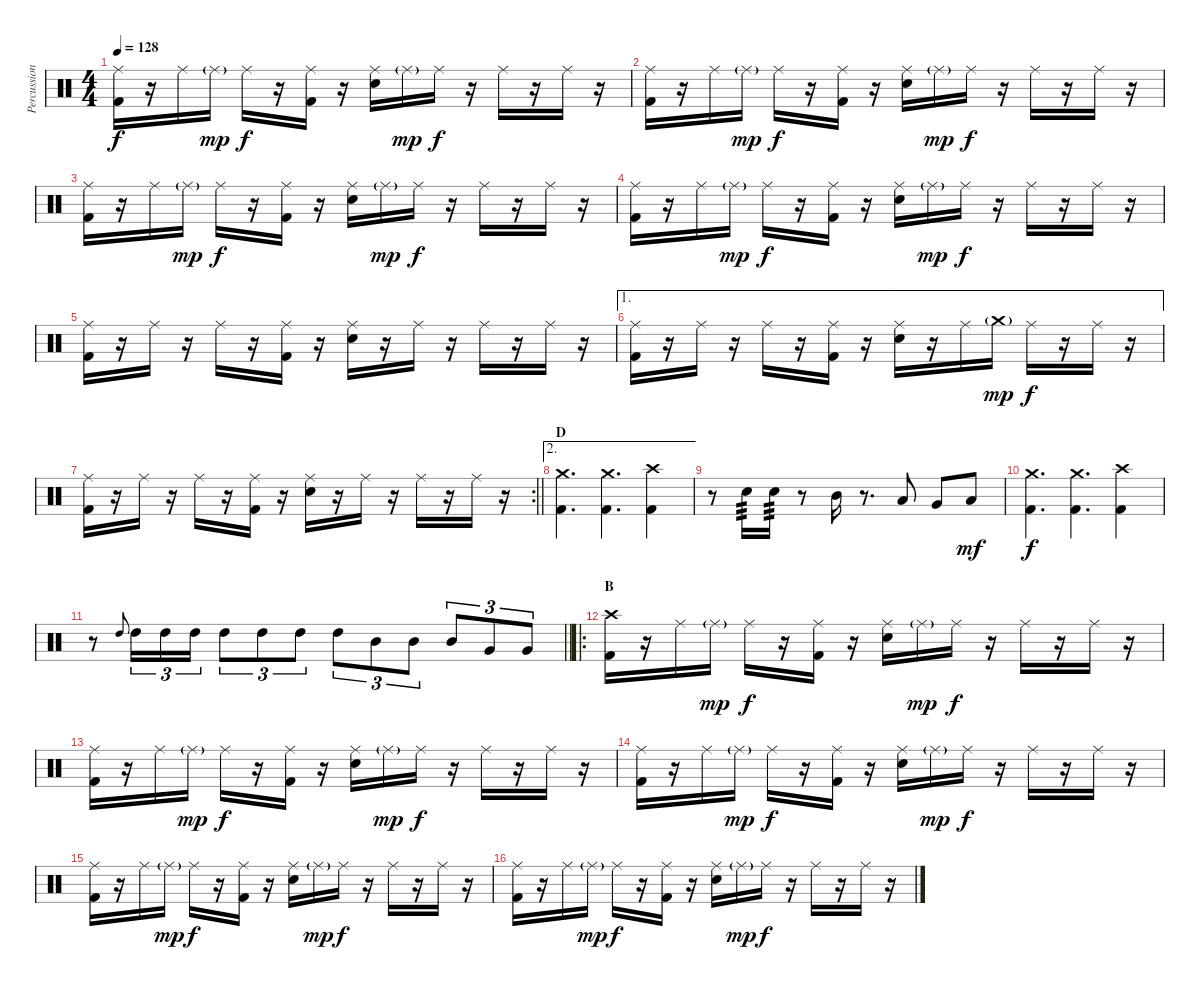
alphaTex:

\track ("Percussion" "Percussion") {instrument percussion}
\staff {score}
\articulation defaults
\ts (4 4)
\tempo 128
\clef neutral
\ks c
("Ride (middle)" "Kick (hit) 2").16{dy f} r.16 "Ride (middle)".16 "Ride (middle)"{g}.16{dy mp} "Ride (middle)".16{dy f} r.16 ("Ride (middle)" "Kick (hit) 2").16 r.16 ("Ride (middle)" "Snare (hit) 2").16 "Ride (middle)"{g}.16{dy mp} "Ride (middle)".16{dy f} r.16 "Ride (middle)".16 r.16 "Ride (middle)".16 r.16 |
("Ride (middle)" "Kick (hit) 2").16 r.16 "Ride (middle)".16 "Ride (middle)"{g}.16{dy mp} "Ride (middle)".16{dy f} r.16 ("Ride (middle)" "Kick (hit) 2").16 r.16 ("Ride (middle)" "Snare (hit) 2").16 "Ride (middle)"{g}.16{dy mp} "Ride (middle)".16{dy f} r.16 "Ride (middle)".16 r.16 "Ride (middle)".16 r.16 |
("Ride (middle)" "Kick (hit) 2").16 r.16 "Ride (middle)".16 "Ride (middle)"{g}.16{dy mp} "Ride (middle)".16{dy f} r.16 ("Ride (middle)" "Kick (hit) 2").16 r.16 ("Ride (middle)" "Snare (hit) 2").16 "Ride (middle)"{g}.16{dy mp} "Ride (middle)".16{dy f} r.16 "Ride (middle)".16 r.16 "Ride (middle)".16 r.16 |
("Ride (middle)" "Kick (hit) 2").16 r.16 "Ride (middle)".16 "Ride (middle)"{g}.16{dy mp} "Ride (middle)".16{dy f} r.16 ("Ride (middle)" "Kick (hit) 2").16 r.16 ("Ride (middle)" "Snare (hit) 2").16 "Ride (middle)"{g}.16{dy mp} "Ride (middle)".16{dy f} r.16 "Ride (middle)".16 r.16 "Ride (middle)".16 r.16 |
("Ride (middle)" "Kick (hit) 2").16 r.16 "Ride (middle)".16 r.16 "Ride (middle)".16 r.16 ("Ride (middle)" "Kick (hit) 2").16 r.16 ("Ride (middle)" "Snare (hit) 2").16 r.16 "Ride (middle)".16 r.16 "Ride (middle)".16 r.16 "Ride (middle)".16 r.16 |
\ae 1
("Ride (middle)" "Kick (hit) 2").16 r.16 "Ride (middle)".16 r.16 "Ride (middle)".16 r.16 ("Ride (middle)" "Kick (hit) 2").16 r.16 ("Ride (middle)" "Snare (hit) 2").16 r.16 "Ride (middle)".16 "Crash medium (hit)"{g}.16{dy mp} "Ride (middle)".16{dy f} r.16 "Ride (middle)".16 r.16 |
\rc 2
\barLineRight lightlight
("Ride (middle)" "Kick (hit) 2").16 r.16 "Ride (middle)".16 r.16 "Ride (middle)".16 r.16 ("Ride (middle)" "Kick (hit) 2").16 r.16 ("Ride (middle)" "Snare (hit) 2").16 r.16 "Ride (middle)".16 r.16 "Ride (middle)".16 r.16 "Ride (middle)".16 r.16 |
\ae 2
\section ("" "D")
("Crash medium (hit)" "Kick (hit) 2").4{d} ("Crash medium (hit)" "Kick (hit) 2").4{d} ("Crash high (hit)" "Kick (hit) 2").4 |
r.8 "Snare (hit) 2".16{tp 3} "Snare (hit) 2".16{tp 3} r.8 "Mid Tom (hit)".16 r.8{d} "Low Tom (hit)".8 "Very Low Tom (hit)".8 "Low Floor Tom (hit)".8{dy mf} |
("Crash medium (hit)" "Kick (hit) 2").4{d dy f} ("Crash medium (hit)" "Kick (hit) 2").4{d} ("Crash high (hit)" "Kick (hit) 2").4 |
\barLineRight lightlight
r.8 "High Tom (hit)".8{gr onbeat} "High Tom (hit)".16{tu (3 2)} "High Tom (hit)".16{tu (3 2)} "High Tom (hit)".16{tu (3 2)} "High Tom (hit)".8{tu (3 2)} "High Tom (hit)".8{tu (3 2)} "High Tom (hit)".8{tu (3 2)} "High Tom (hit)".8{tu (3 2)} "Mid Tom (hit)".8{tu (3 2)} "Mid Tom (hit)".8{tu (3 2)} "Mid Tom (hit)".8{tu (3 2)} "Very Low Tom (hit)".8{tu (3 2)} "Very Low Tom (hit)".8{tu (3 2)} |
\ro
\section ("" "B")
("Crash high (hit)" "Kick (hit) 2").16 r.16 "Ride (middle)".16 "Ride (middle)"{g}.16{dy mp} "Ride (middle)".16{dy f} r.16 ("Ride (middle)" "Kick (hit) 2").16 r.16 ("Ride (middle)" "Snare (hit) 2").16 "Ride (middle)"{g}.16{dy mp} "Ride (middle)".16{dy f} r.16 "Ride (middle)".16 r.16 "Ride (middle)".16 r.16 |
("Ride (middle)" "Kick (hit) 2").16 r.16 "Ride (middle)".16 "Ride (middle)"{g}.16{dy mp} "Ride (middle)".16{dy f} r.16 ("Ride (middle)" "Kick (hit) 2").16 r.16 ("Ride (middle)" "Snare (hit) 2").16 "Ride (middle)"{g}.16{dy mp} "Ride (middle)".16{dy f} r.16 "Ride (middle)".16 r.16 "Ride (middle)".16 r.16 |
("Ride (middle)" "Kick (hit) 2").16 r.16 "Ride (middle)".16 "Ride (middle)"{g}.16{dy mp} "Ride (middle)".16{dy f} r.16 ("Ride (middle)" "Kick (hit) 2").16 r.16 ("Ride (middle)" "Snare (hit) 2").16 "Ride (middle)"{g}.16{dy mp} "Ride (middle)".16{dy f} r.16 "Ride (middle)".16 r.16 "Ride (middle)".16 r.16 |
("Ride (middle)" "Kick (hit) 2").16 r.16 "Ride (middle)".16 "Ride (middle)"{g}.16{dy mp} "Ride (middle)".16{dy f} r.16 ("Ride (middle)" "Kick (hit) 2").16 r.16 ("Ride (middle)" "Snare (hit) 2").16 "Ride (middle)"{g}.16{dy mp} "Ride (middle)".16{dy f} r.16 "Ride (middle)".16 r.16 "Ride (middle)".16 r.16 |
("Ride (middle)" "Kick (hit) 2").16 r.16 "Ride (middle)".16 "Ride (middle)"{g}.16{dy mp} "Ride (middle)".16{dy f} r.16 ("Ride (middle)" "Kick (hit) 2").16 r.16 ("Ride (middle)" "Snare (hit) 2").16 "Ride (middle)"{g}.16{dy mp} "Ride (middle)".16{dy f} r.16 "Ride (middle)".16 r.16 "Ride (middle)".16 r.16
